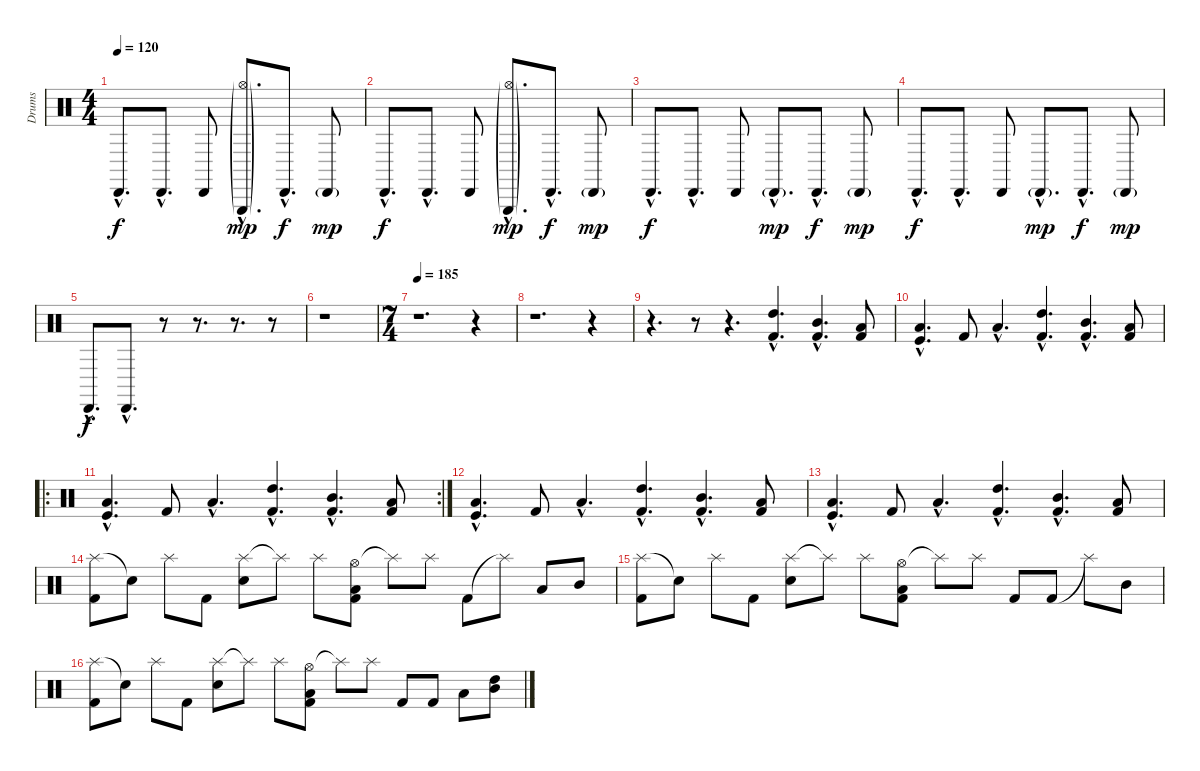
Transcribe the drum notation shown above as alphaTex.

\track ("Drums" "Drums") {instrument percussion}
\staff {score}
\articulation defaults
\ts (4 4)
\tempo 120
\clef neutral
\ks c "Cabasa (hit)"{hac}.8{d dy f} "Cabasa (hit)"{hac}.8{d} "Cabasa (hit)".8
("Triangle (hit)"{g hac} "Hi-Hat (open)"{g hac}).8{d dy mp} "Cabasa (hit)"{hac}.8{d dy f} "Cabasa (hit)"{g}.8{dy mp} |
"Cabasa (hit)"{hac}.8{d dy f} "Cabasa (hit)"{hac}.8{d} "Cabasa (hit)".8 ("Triangle (hit)"{g hac} "Hi-Hat (open)"{g hac}).8{d dy mp} "Cabasa (hit)"{hac}.8{d dy f} "Cabasa (hit)"{g}.8{dy mp} |
"Cabasa (hit)"{hac}.8{d dy f} "Cabasa (hit)"{hac}.8{d} "Cabasa (hit)".8 "Cabasa (hit)"{g hac}.8{d dy mp} "Cabasa (hit)"{hac}.8{d dy f} "Cabasa (hit)"{g}.8{dy mp} |
"Cabasa (hit)"{hac}.8{d dy f} "Cabasa (hit)"{hac}.8{d} "Cabasa (hit)".8 "Cabasa (hit)"{g hac}.8{d dy mp} "Cabasa (hit)"{hac}.8{d dy f} "Cabasa (hit)"{g}.8{dy mp} |
"Cabasa (hit)"{hac}.8{d dy f} "Cabasa (hit)"{hac}.8{d} r.8 r.8{d} r.8{d} r.8 |
r.1 |
\ts (7 4)
\tempo 185
r.1{d} r.4 |
r.1{d} r.4 |
r.4{d} r.8 r.4{d} ("High Tom (hit)"{hac} "Kick (hit) 2"{hac}).4{d} ("Mid Tom (hit)"{hac} "Kick (hit) 2"{hac}).4{d} ("Low Tom (hit)" "Kick (hit) 2").8 |
("Kick (hit)"{hac} "Low Tom (hit)"{hac}).4{d} "Kick (hit) 2".8 "Low Tom (hit)"{hac}.4{d} ("High Tom (hit)"{hac} "Kick (hit) 2"{hac}).4{d} ("Mid Tom (hit)"{hac} "Kick (hit) 2"{hac}).4{d} ("Low Tom (hit)" "Kick (hit) 2").8 |
\ro
\rc 2
("Kick (hit)"{hac} "Low Tom (hit)"{hac}).4{d} "Kick (hit) 2".8 "Low Tom (hit)"{hac}.4{d} ("High Tom (hit)"{hac} "Kick (hit) 2"{hac}).4{d} ("Mid Tom (hit)"{hac} "Kick (hit) 2"{hac}).4{d} ("Low Tom (hit)" "Kick (hit) 2").8 |
("Kick (hit)"{hac} "Low Tom (hit)"{hac}).4{d} "Kick (hit) 2".8 "Low Tom (hit)"{hac}.4{d} ("High Tom (hit)"{hac} "Kick (hit) 2"{hac}).4{d} ("Mid Tom (hit)"{hac} "Kick (hit) 2"{hac}).4{d} ("Low Tom (hit)" "Kick (hit) 2").8 |
("Kick (hit)"{hac} "Low Tom (hit)"{hac}).4{d} "Kick (hit) 2".8 "Low Tom (hit)"{hac}.4{d} ("High Tom (hit)"{hac} "Kick (hit) 2"{hac}).4{d} ("Mid Tom (hit)"{hac} "Kick (hit) 2"{hac}).4{d} ("Low Tom (hit)" "Kick (hit) 2").8 |
("Splash (hit)" "Kick (hit) 2").8 "Snare (hit)"{t}.8 "Splash (hit)".8 "Kick (hit) 2".8 ("Splash (hit)" "Electric Snare (hit)").8 "Splash (hit)"{t}.8 "Splash (hit)".8 ("Hi-Hat (open)" "Low Tom (hit)" "Kick (hit) 2").8 "Splash (hit)"{t}.8 "Splash (hit)".8 "Kick (hit) 2".8 "Splash (hit)"{t}.8 "Low Tom (hit)".8 "Mid Tom (hit)".8 |
("Splash (hit)" "Kick (hit) 2").8 "Snare (hit)"{t}.8 "Splash (hit)".8 "Kick (hit) 2".8 ("Splash (hit)" "Electric Snare (hit)").8 "Splash (hit)"{t}.8 "Splash (hit)".8 ("Hi-Hat (open)" "Low Tom (hit)" "Kick (hit) 2").8 "Splash (hit)"{t}.8 "Splash (hit)".8 "Kick (hit) 2".8 "Kick (hit) 2".8 "Splash (hit)"{t}.8 "Mid Tom (hit)".8 |
("Splash (hit)" "Kick (hit) 2").8 "Snare (hit)"{t}.8 "Splash (hit)".8 "Kick (hit) 2".8 ("Splash (hit)" "Electric Snare (hit)").8 "Splash (hit)"{t}.8 "Splash (hit)".8 ("Hi-Hat (open)" "Low Tom (hit)" "Kick (hit) 2").8 "Splash (hit)"{t}.8 "Splash (hit)".8 "Kick (hit) 2".8 "Kick (hit) 2".8 "Low Tom (hit)".8 ("High Tom (hit)" "Mid Tom (hit)").8
